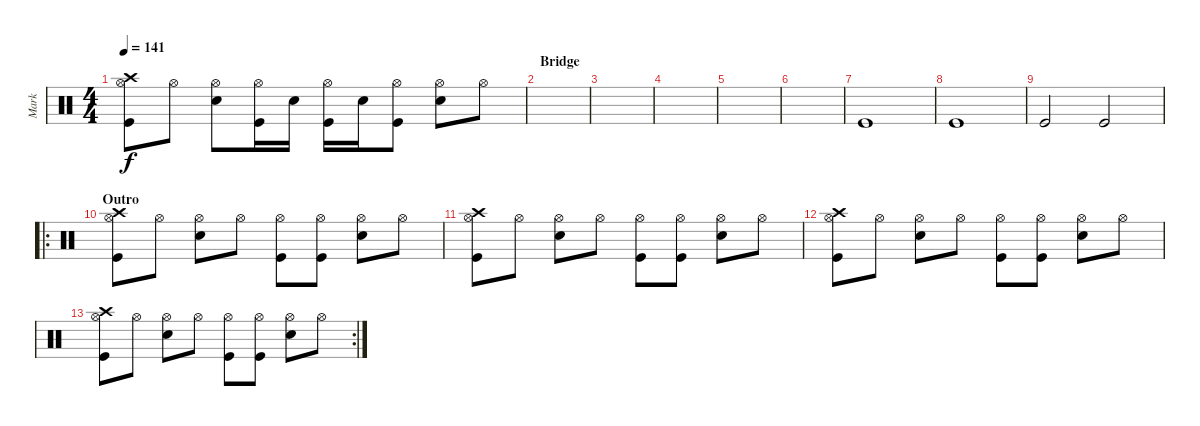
\track ("Mark" "Mark") {instrument percussion}
\staff {score}
\articulation defaults
\ts (4 4)
\tempo 141
\clef neutral
\ks c
("Crash high (hit)" "Hi-Hat (open)" "Kick (hit)").8{dy f} "Hi-Hat (open)".8 ("Hi-Hat (open)" "Electric Snare (hit)").8 ("Hi-Hat (open)" "Kick (hit)").16 "Electric Snare (hit)".16 ("Hi-Hat (open)" "Kick (hit)").16 "Electric Snare (hit)".16 ("Hi-Hat (open)" "Kick (hit)").8 ("Hi-Hat (open)" "Electric Snare (hit)").8 "Hi-Hat (open)".8 |
\section ("" "Bridge")
|
|
|
|
|
"Kick (hit)".1 |
"Kick (hit)".1 |
"Kick (hit)".2 "Kick (hit)".2 |
\ro
\section ("" "Outro")
("Crash high (hit)" "Hi-Hat (open)" "Kick (hit)").8 "Hi-Hat (open)".8 ("Hi-Hat (open)" "Electric Snare (hit)").8 "Hi-Hat (open)".8 ("Hi-Hat (open)" "Kick (hit)").8 ("Hi-Hat (open)" "Kick (hit)").8 ("Hi-Hat (open)" "Electric Snare (hit)").8 "Hi-Hat (open)".8 |
("Crash high (hit)" "Hi-Hat (open)" "Kick (hit)").8 "Hi-Hat (open)".8 ("Hi-Hat (open)" "Electric Snare (hit)").8 "Hi-Hat (open)".8 ("Hi-Hat (open)" "Kick (hit)").8 ("Hi-Hat (open)" "Kick (hit)").8 ("Hi-Hat (open)" "Electric Snare (hit)").8 "Hi-Hat (open)".8 |
("Crash high (hit)" "Hi-Hat (open)" "Kick (hit)").8 "Hi-Hat (open)".8 ("Hi-Hat (open)" "Electric Snare (hit)").8 "Hi-Hat (open)".8 ("Hi-Hat (open)" "Kick (hit)").8 ("Hi-Hat (open)" "Kick (hit)").8 ("Hi-Hat (open)" "Electric Snare (hit)").8 "Hi-Hat (open)".8 |
\rc 2
("Crash high (hit)" "Hi-Hat (open)" "Kick (hit)").8 "Hi-Hat (open)".8 ("Hi-Hat (open)" "Electric Snare (hit)").8 "Hi-Hat (open)".8 ("Hi-Hat (open)" "Kick (hit)").8 ("Hi-Hat (open)" "Kick (hit)").8 ("Hi-Hat (open)" "Electric Snare (hit)").8 "Hi-Hat (open)".8
